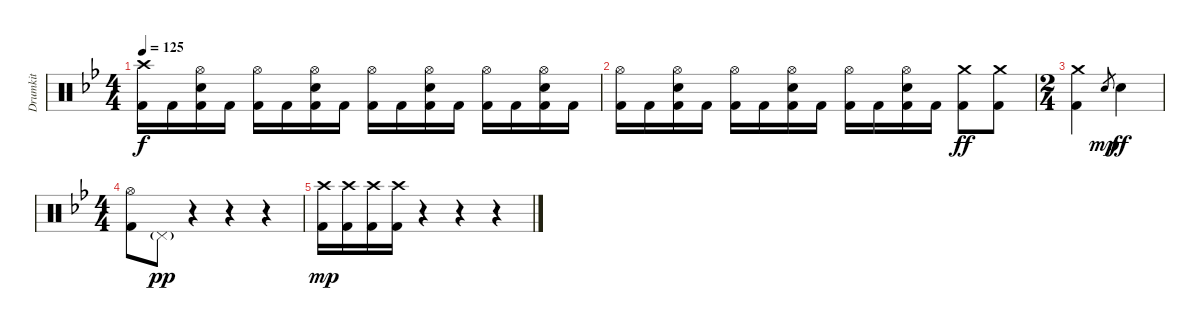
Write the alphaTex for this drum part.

\track ("Drumkit" "Drumkit") {instrument percussion}
\staff {score}
\articulation defaults
\ts (4 4)
\tempo 125
\clef neutral
\ks bb
("Crash high (hit)" "Kick (hit) 2").16{dy f} "Kick (hit) 2".16 ("Hi-Hat (open)" "Snare (hit) 2" "Kick (hit) 2").16 "Kick (hit) 2".16 ("Hi-Hat (open)" "Kick (hit) 2").16 "Kick (hit) 2".16 ("Hi-Hat (open)" "Snare (hit) 2" "Kick (hit) 2").16 "Kick (hit) 2".16 ("Hi-Hat (open)" "Kick (hit) 2").16 "Kick (hit) 2".16 ("Hi-Hat (open)" "Snare (hit) 2" "Kick (hit) 2").16 "Kick (hit) 2".16 ("Hi-Hat (open)" "Kick (hit) 2").16 "Kick (hit) 2".16 ("Hi-Hat (open)" "Snare (hit) 2" "Kick (hit) 2").16 "Kick (hit) 2".16 |
("Hi-Hat (open)" "Kick (hit) 2").16 "Kick (hit) 2".16 ("Hi-Hat (open)" "Snare (hit) 2" "Kick (hit) 2").16 "Kick (hit) 2".16 ("Hi-Hat (open)" "Kick (hit) 2").16 "Kick (hit) 2".16 ("Hi-Hat (open)" "Snare (hit) 2" "Kick (hit) 2").16 "Kick (hit) 2".16 ("Hi-Hat (open)" "Kick (hit) 2").16 "Kick (hit) 2".16 ("Hi-Hat (open)" "Snare (hit) 2" "Kick (hit) 2").16 "Kick (hit) 2".16 ("Crash medium (hit)" "Kick (hit) 2").8{dy ff} ("Crash medium (hit)" "Kick (hit) 2").8 |
\ts (2 4)
("Crash medium (hit)" "Kick (hit) 2").4 "Snare (hit)".8{gr dy mp} "Snare (hit) 2".4{dy ff} |
\ts (4 4)
("Hi-Hat (open)" "Kick (hit) 2").8 "Pedal Hi-Hat (hit)"{g}.8{dy pp} r.4 r.4 r.4 |
("Crash high (hit)" "Kick (hit) 2").16{dy mp} ("Crash high (hit)" "Kick (hit) 2").16 ("Crash high (hit)" "Kick (hit) 2").16 ("Crash high (hit)" "Kick (hit) 2").16 r.4 r.4 r.4
